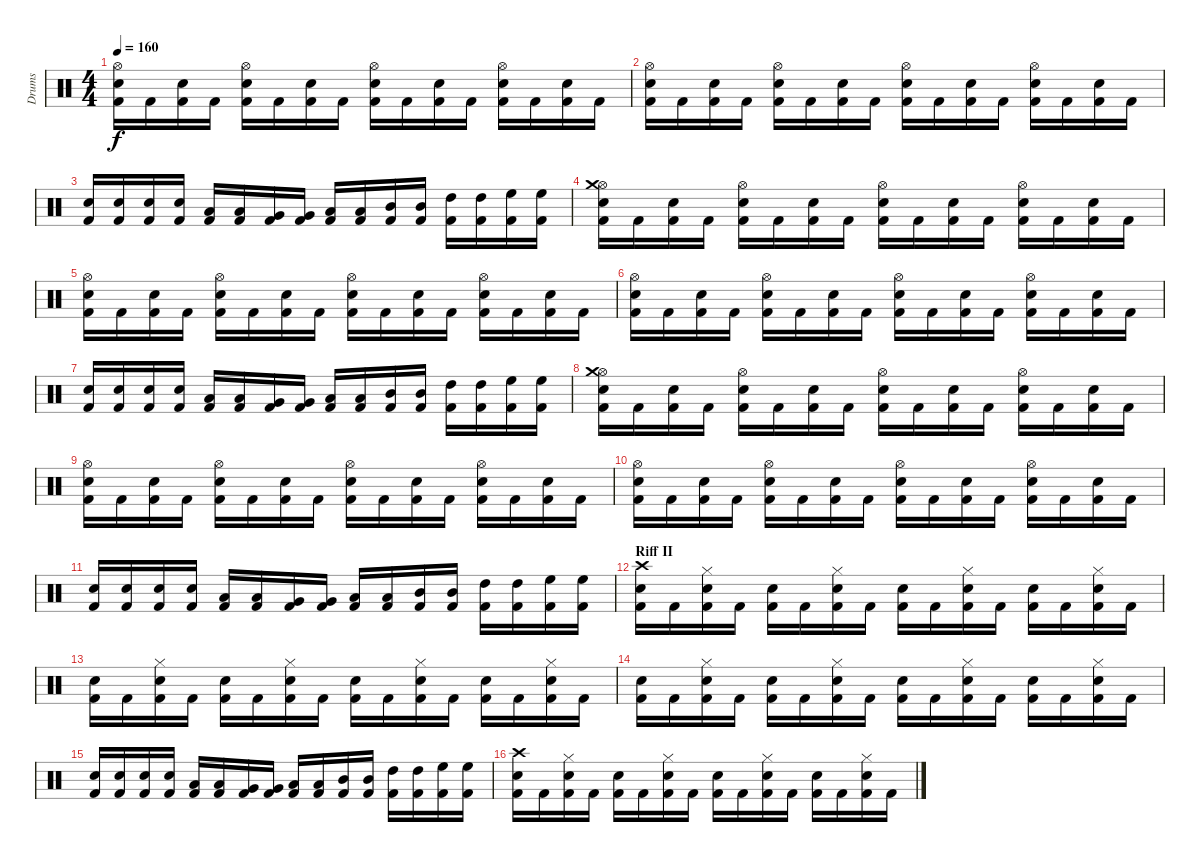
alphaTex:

\track ("Drums" "Drums") {instrument percussion}
\staff {score}
\articulation defaults
\ts (4 4)
\tempo 160
\clef neutral
\ks c
("Kick (hit) 2" "Snare (hit) 2" "Hi-Hat (open)").16{dy f} "Kick (hit) 2".16 ("Kick (hit) 2" "Snare (hit) 2").16 "Kick (hit) 2".16 ("Kick (hit) 2" "Snare (hit) 2" "Hi-Hat (open)").16 "Kick (hit) 2".16 ("Kick (hit) 2" "Snare (hit) 2").16 "Kick (hit) 2".16 ("Kick (hit) 2" "Snare (hit) 2" "Hi-Hat (open)").16 "Kick (hit) 2".16 ("Kick (hit) 2" "Snare (hit) 2").16 "Kick (hit) 2".16 ("Kick (hit) 2" "Snare (hit) 2" "Hi-Hat (open)").16 "Kick (hit) 2".16 ("Kick (hit) 2" "Snare (hit) 2").16 "Kick (hit) 2".16 |
("Kick (hit) 2" "Snare (hit) 2" "Hi-Hat (open)").16 "Kick (hit) 2".16 ("Kick (hit) 2" "Snare (hit) 2").16 "Kick (hit) 2".16 ("Kick (hit) 2" "Snare (hit) 2" "Hi-Hat (open)").16 "Kick (hit) 2".16 ("Kick (hit) 2" "Snare (hit) 2").16 "Kick (hit) 2".16 ("Kick (hit) 2" "Snare (hit) 2" "Hi-Hat (open)").16 "Kick (hit) 2".16 ("Kick (hit) 2" "Snare (hit) 2").16 "Kick (hit) 2".16 ("Kick (hit) 2" "Snare (hit) 2" "Hi-Hat (open)").16 "Kick (hit) 2".16 ("Kick (hit) 2" "Snare (hit) 2").16 "Kick (hit) 2".16 |
("Kick (hit) 2" "Snare (hit) 2").16 ("Kick (hit) 2" "Snare (hit) 2").16 ("Kick (hit) 2" "Snare (hit) 2").16 ("Kick (hit) 2" "Snare (hit) 2").16 ("Kick (hit) 2" "Low Floor Tom (hit)").16 ("Kick (hit) 2" "Low Floor Tom (hit)").16 ("Kick (hit) 2" "Very Low Tom (hit)").16 ("Kick (hit) 2" "Very Low Tom (hit)").16 ("Kick (hit) 2" "Low Tom (hit)").16 ("Kick (hit) 2" "Low Tom (hit)").16 ("Kick (hit) 2" "Mid Tom (hit)").16 ("Kick (hit) 2" "Mid Tom (hit)").16 ("Kick (hit) 2" "High Tom (hit)").16 ("Kick (hit) 2" "High Tom (hit)").16 ("Kick (hit) 2" "High Floor Tom (hit)").16 ("Kick (hit) 2" "High Floor Tom (hit)").16 |
("Kick (hit) 2" "Snare (hit) 2" "Hi-Hat (open)" "Crash medium (hit)").16 "Kick (hit) 2".16 ("Kick (hit) 2" "Snare (hit) 2").16 "Kick (hit) 2".16 ("Kick (hit) 2" "Snare (hit) 2" "Hi-Hat (open)").16 "Kick (hit) 2".16 ("Kick (hit) 2" "Snare (hit) 2").16 "Kick (hit) 2".16 ("Kick (hit) 2" "Snare (hit) 2" "Hi-Hat (open)").16 "Kick (hit) 2".16 ("Kick (hit) 2" "Snare (hit) 2").16 "Kick (hit) 2".16 ("Kick (hit) 2" "Snare (hit) 2" "Hi-Hat (open)").16 "Kick (hit) 2".16 ("Kick (hit) 2" "Snare (hit) 2").16 "Kick (hit) 2".16 |
("Kick (hit) 2" "Snare (hit) 2" "Hi-Hat (open)").16 "Kick (hit) 2".16 ("Kick (hit) 2" "Snare (hit) 2").16 "Kick (hit) 2".16 ("Kick (hit) 2" "Snare (hit) 2" "Hi-Hat (open)").16 "Kick (hit) 2".16 ("Kick (hit) 2" "Snare (hit) 2").16 "Kick (hit) 2".16 ("Kick (hit) 2" "Snare (hit) 2" "Hi-Hat (open)").16 "Kick (hit) 2".16 ("Kick (hit) 2" "Snare (hit) 2").16 "Kick (hit) 2".16 ("Kick (hit) 2" "Snare (hit) 2" "Hi-Hat (open)").16 "Kick (hit) 2".16 ("Kick (hit) 2" "Snare (hit) 2").16 "Kick (hit) 2".16 |
("Kick (hit) 2" "Snare (hit) 2" "Hi-Hat (open)").16 "Kick (hit) 2".16 ("Kick (hit) 2" "Snare (hit) 2").16 "Kick (hit) 2".16 ("Kick (hit) 2" "Snare (hit) 2" "Hi-Hat (open)").16 "Kick (hit) 2".16 ("Kick (hit) 2" "Snare (hit) 2").16 "Kick (hit) 2".16 ("Kick (hit) 2" "Snare (hit) 2" "Hi-Hat (open)").16 "Kick (hit) 2".16 ("Kick (hit) 2" "Snare (hit) 2").16 "Kick (hit) 2".16 ("Kick (hit) 2" "Snare (hit) 2" "Hi-Hat (open)").16 "Kick (hit) 2".16 ("Kick (hit) 2" "Snare (hit) 2").16 "Kick (hit) 2".16 |
("Kick (hit) 2" "Snare (hit) 2").16 ("Kick (hit) 2" "Snare (hit) 2").16 ("Kick (hit) 2" "Snare (hit) 2").16 ("Kick (hit) 2" "Snare (hit) 2").16 ("Kick (hit) 2" "Low Floor Tom (hit)").16 ("Kick (hit) 2" "Low Floor Tom (hit)").16 ("Kick (hit) 2" "Very Low Tom (hit)").16 ("Kick (hit) 2" "Very Low Tom (hit)").16 ("Kick (hit) 2" "Low Tom (hit)").16 ("Kick (hit) 2" "Low Tom (hit)").16 ("Kick (hit) 2" "Mid Tom (hit)").16 ("Kick (hit) 2" "Mid Tom (hit)").16 ("Kick (hit) 2" "High Tom (hit)").16 ("Kick (hit) 2" "High Tom (hit)").16 ("Kick (hit) 2" "High Floor Tom (hit)").16 ("Kick (hit) 2" "High Floor Tom (hit)").16 |
("Kick (hit) 2" "Snare (hit) 2" "Hi-Hat (open)" "Crash medium (hit)").16 "Kick (hit) 2".16 ("Kick (hit) 2" "Snare (hit) 2").16 "Kick (hit) 2".16 ("Kick (hit) 2" "Snare (hit) 2" "Hi-Hat (open)").16 "Kick (hit) 2".16 ("Kick (hit) 2" "Snare (hit) 2").16 "Kick (hit) 2".16 ("Kick (hit) 2" "Snare (hit) 2" "Hi-Hat (open)").16 "Kick (hit) 2".16 ("Kick (hit) 2" "Snare (hit) 2").16 "Kick (hit) 2".16 ("Kick (hit) 2" "Snare (hit) 2" "Hi-Hat (open)").16 "Kick (hit) 2".16 ("Kick (hit) 2" "Snare (hit) 2").16 "Kick (hit) 2".16 |
("Kick (hit) 2" "Snare (hit) 2" "Hi-Hat (open)").16 "Kick (hit) 2".16 ("Kick (hit) 2" "Snare (hit) 2").16 "Kick (hit) 2".16 ("Kick (hit) 2" "Snare (hit) 2" "Hi-Hat (open)").16 "Kick (hit) 2".16 ("Kick (hit) 2" "Snare (hit) 2").16 "Kick (hit) 2".16 ("Kick (hit) 2" "Snare (hit) 2" "Hi-Hat (open)").16 "Kick (hit) 2".16 ("Kick (hit) 2" "Snare (hit) 2").16 "Kick (hit) 2".16 ("Kick (hit) 2" "Snare (hit) 2" "Hi-Hat (open)").16 "Kick (hit) 2".16 ("Kick (hit) 2" "Snare (hit) 2").16 "Kick (hit) 2".16 |
("Kick (hit) 2" "Snare (hit) 2" "Hi-Hat (open)").16 "Kick (hit) 2".16 ("Kick (hit) 2" "Snare (hit) 2").16 "Kick (hit) 2".16 ("Kick (hit) 2" "Snare (hit) 2" "Hi-Hat (open)").16 "Kick (hit) 2".16 ("Kick (hit) 2" "Snare (hit) 2").16 "Kick (hit) 2".16 ("Kick (hit) 2" "Snare (hit) 2" "Hi-Hat (open)").16 "Kick (hit) 2".16 ("Kick (hit) 2" "Snare (hit) 2").16 "Kick (hit) 2".16 ("Kick (hit) 2" "Snare (hit) 2" "Hi-Hat (open)").16 "Kick (hit) 2".16 ("Kick (hit) 2" "Snare (hit) 2").16 "Kick (hit) 2".16 |
("Kick (hit) 2" "Snare (hit) 2").16 ("Kick (hit) 2" "Snare (hit) 2").16 ("Kick (hit) 2" "Snare (hit) 2").16 ("Kick (hit) 2" "Snare (hit) 2").16 ("Kick (hit) 2" "Low Floor Tom (hit)").16 ("Kick (hit) 2" "Low Floor Tom (hit)").16 ("Kick (hit) 2" "Very Low Tom (hit)").16 ("Kick (hit) 2" "Very Low Tom (hit)").16 ("Kick (hit) 2" "Low Tom (hit)").16 ("Kick (hit) 2" "Low Tom (hit)").16 ("Kick (hit) 2" "Mid Tom (hit)").16 ("Kick (hit) 2" "Mid Tom (hit)").16 ("Kick (hit) 2" "High Tom (hit)").16 ("Kick (hit) 2" "High Tom (hit)").16 ("Kick (hit) 2" "High Floor Tom (hit)").16 ("Kick (hit) 2" "High Floor Tom (hit)").16 |
\section ("" "Riff II")
("Kick (hit) 2" "Snare (hit) 2" "Crash high (hit)").16 "Kick (hit) 2".16 ("Kick (hit) 2" "Snare (hit) 2" "Hi-Hat (closed)").16 "Kick (hit) 2".16 ("Kick (hit) 2" "Snare (hit) 2").16 "Kick (hit) 2".16 ("Kick (hit) 2" "Snare (hit) 2" "Hi-Hat (closed)").16 "Kick (hit) 2".16 ("Kick (hit) 2" "Snare (hit) 2").16 "Kick (hit) 2".16 ("Kick (hit) 2" "Snare (hit) 2" "Hi-Hat (closed)").16 "Kick (hit) 2".16 ("Kick (hit) 2" "Snare (hit) 2").16 "Kick (hit) 2".16 ("Kick (hit) 2" "Snare (hit) 2" "Hi-Hat (closed)").16 "Kick (hit) 2".16 |
("Kick (hit) 2" "Snare (hit) 2").16 "Kick (hit) 2".16 ("Kick (hit) 2" "Snare (hit) 2" "Hi-Hat (closed)").16 "Kick (hit) 2".16 ("Kick (hit) 2" "Snare (hit) 2").16 "Kick (hit) 2".16 ("Kick (hit) 2" "Snare (hit) 2" "Hi-Hat (closed)").16 "Kick (hit) 2".16 ("Kick (hit) 2" "Snare (hit) 2").16 "Kick (hit) 2".16 ("Kick (hit) 2" "Snare (hit) 2" "Hi-Hat (closed)").16 "Kick (hit) 2".16 ("Kick (hit) 2" "Snare (hit) 2").16 "Kick (hit) 2".16 ("Kick (hit) 2" "Snare (hit) 2" "Hi-Hat (closed)").16 "Kick (hit) 2".16 |
("Kick (hit) 2" "Snare (hit) 2").16 "Kick (hit) 2".16 ("Kick (hit) 2" "Snare (hit) 2" "Hi-Hat (closed)").16 "Kick (hit) 2".16 ("Kick (hit) 2" "Snare (hit) 2").16 "Kick (hit) 2".16 ("Kick (hit) 2" "Snare (hit) 2" "Hi-Hat (closed)").16 "Kick (hit) 2".16 ("Kick (hit) 2" "Snare (hit) 2").16 "Kick (hit) 2".16 ("Kick (hit) 2" "Snare (hit) 2" "Hi-Hat (closed)").16 "Kick (hit) 2".16 ("Kick (hit) 2" "Snare (hit) 2").16 "Kick (hit) 2".16 ("Kick (hit) 2" "Snare (hit) 2" "Hi-Hat (closed)").16 "Kick (hit) 2".16 |
("Kick (hit) 2" "Snare (hit) 2").16 ("Kick (hit) 2" "Snare (hit) 2").16 ("Kick (hit) 2" "Snare (hit) 2").16 ("Kick (hit) 2" "Snare (hit) 2").16 ("Kick (hit) 2" "Low Floor Tom (hit)").16 ("Kick (hit) 2" "Low Floor Tom (hit)").16 ("Kick (hit) 2" "Very Low Tom (hit)").16 ("Kick (hit) 2" "Very Low Tom (hit)").16 ("Kick (hit) 2" "Low Tom (hit)").16 ("Kick (hit) 2" "Low Tom (hit)").16 ("Kick (hit) 2" "Mid Tom (hit)").16 ("Kick (hit) 2" "Mid Tom (hit)").16 ("Kick (hit) 2" "High Tom (hit)").16 ("Kick (hit) 2" "High Tom (hit)").16 ("Kick (hit) 2" "High Floor Tom (hit)").16 ("Kick (hit) 2" "High Floor Tom (hit)").16 |
("Kick (hit) 2" "Snare (hit) 2" "Crash high (hit)").16 "Kick (hit) 2".16 ("Kick (hit) 2" "Snare (hit) 2" "Hi-Hat (closed)").16 "Kick (hit) 2".16 ("Kick (hit) 2" "Snare (hit) 2").16 "Kick (hit) 2".16 ("Kick (hit) 2" "Snare (hit) 2" "Hi-Hat (closed)").16 "Kick (hit) 2".16 ("Kick (hit) 2" "Snare (hit) 2").16 "Kick (hit) 2".16 ("Kick (hit) 2" "Snare (hit) 2" "Hi-Hat (closed)").16 "Kick (hit) 2".16 ("Kick (hit) 2" "Snare (hit) 2").16 "Kick (hit) 2".16 ("Kick (hit) 2" "Snare (hit) 2" "Hi-Hat (closed)").16 "Kick (hit) 2".16
